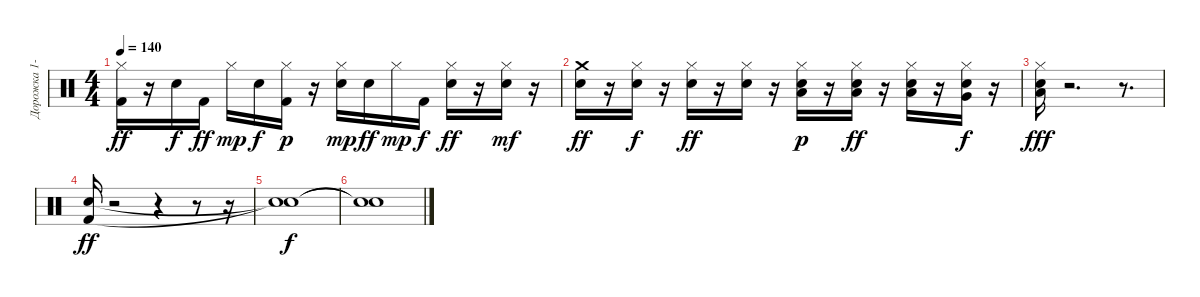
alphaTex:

\track ("Дорожка 1-2" "Дорожка 1-") {instrument percussion}
\staff {score}
\articulation defaults
\ts (4 4)
\tempo 140
\clef neutral
\ks c
("Hi-Hat (closed)" "Kick (hit) 2").16{dy ff} r.16 "Electric Snare (hit)".16{dy f} "Kick (hit) 2".16{dy ff} "Hi-Hat (closed)".16{dy mp} "Electric Snare (hit)".16{dy f} ("Kick (hit) 2" "Hi-Hat (closed)").16{dy p} r.16 ("Electric Snare (hit)" "Hi-Hat (closed)").16{dy mp} "Electric Snare (hit)".16{dy ff} "Hi-Hat (closed)".16{dy mp} "Kick (hit) 2".16{dy f} ("Electric Snare (hit)" "Hi-Hat (closed)").16{dy ff} r.16 ("Electric Snare (hit)" "Hi-Hat (closed)").16{dy mf} r.16 |
("Electric Snare (hit)" "Crash medium (hit)").16{dy ff} r.16 ("Electric Snare (hit)" "Hi-Hat (closed)").16{dy f} r.16 ("Electric Snare (hit)" "Hi-Hat (closed)").16{dy ff} r.16 ("Hi-Hat (closed)" "Electric Snare (hit)").16 r.16 ("Electric Snare (hit)" "Hi-Hat (closed)" "Low Tom (hit)").16{dy p} r.16 ("Low Tom (hit)" "Hi-Hat (closed)" "Electric Snare (hit)").16{dy ff} r.16 ("Hi-Hat (closed)" "Low Tom (hit)" "Electric Snare (hit)").16 r.16 ("Very Low Tom (hit)" "Hi-Hat (closed)" "Electric Snare (hit)").16{dy f} r.16 |
("Low Tom (hit)" "Hi-Hat (closed)" "Electric Snare (hit)").16{dy fff} r.2{d} r.8{d} |
("Kick (hit) 2" "Electric Snare (hit)").16{dy ff} r.2 r.4 r.8 r.16 |
("Snare (hit)"{t} "Snare (hit)"{t}).1{dy f} |
("Snare (hit)"{t} "Snare (hit)"{t}).1
